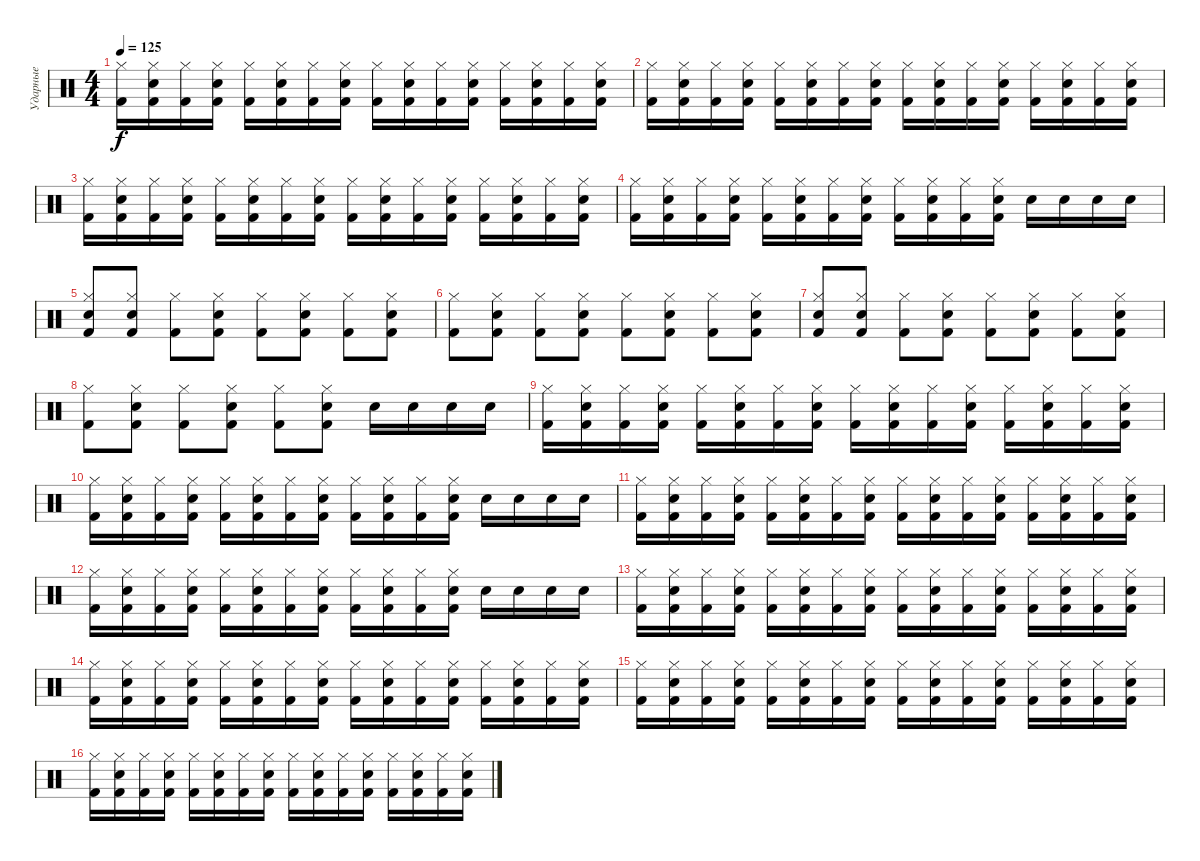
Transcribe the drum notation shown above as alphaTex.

\track ("Ударные" "Ударные") {instrument percussion}
\staff {score}
\articulation defaults
\ts (4 4)
\tempo 125
\clef neutral
\ks c
("Kick (hit) 2" "Hi-Hat (closed)").16{dy f} ("Kick (hit) 2" "Hi-Hat (closed)" "Electric Snare (hit)").16 ("Kick (hit) 2" "Hi-Hat (closed)").16 ("Kick (hit) 2" "Hi-Hat (closed)" "Electric Snare (hit)").16 ("Kick (hit) 2" "Hi-Hat (closed)").16 ("Kick (hit) 2" "Hi-Hat (closed)" "Electric Snare (hit)").16 ("Kick (hit) 2" "Hi-Hat (closed)").16 ("Kick (hit) 2" "Hi-Hat (closed)" "Electric Snare (hit)").16 ("Kick (hit) 2" "Hi-Hat (closed)").16 ("Kick (hit) 2" "Hi-Hat (closed)" "Electric Snare (hit)").16 ("Kick (hit) 2" "Hi-Hat (closed)").16 ("Kick (hit) 2" "Hi-Hat (closed)" "Electric Snare (hit)").16 ("Kick (hit) 2" "Hi-Hat (closed)").16 ("Kick (hit) 2" "Hi-Hat (closed)" "Electric Snare (hit)").16 ("Kick (hit) 2" "Hi-Hat (closed)").16 ("Kick (hit) 2" "Hi-Hat (closed)" "Electric Snare (hit)").16 |
("Kick (hit) 2" "Hi-Hat (closed)").16 ("Kick (hit) 2" "Hi-Hat (closed)" "Electric Snare (hit)").16 ("Kick (hit) 2" "Hi-Hat (closed)").16 ("Kick (hit) 2" "Hi-Hat (closed)" "Electric Snare (hit)").16 ("Kick (hit) 2" "Hi-Hat (closed)").16 ("Kick (hit) 2" "Hi-Hat (closed)" "Electric Snare (hit)").16 ("Kick (hit) 2" "Hi-Hat (closed)").16 ("Kick (hit) 2" "Hi-Hat (closed)" "Electric Snare (hit)").16 ("Kick (hit) 2" "Hi-Hat (closed)").16 ("Kick (hit) 2" "Hi-Hat (closed)" "Electric Snare (hit)").16 ("Kick (hit) 2" "Hi-Hat (closed)").16 ("Kick (hit) 2" "Hi-Hat (closed)" "Electric Snare (hit)").16 ("Kick (hit) 2" "Hi-Hat (closed)").16 ("Kick (hit) 2" "Hi-Hat (closed)" "Electric Snare (hit)").16 ("Kick (hit) 2" "Hi-Hat (closed)").16 ("Kick (hit) 2" "Hi-Hat (closed)" "Electric Snare (hit)").16 |
("Kick (hit) 2" "Hi-Hat (closed)").16 ("Kick (hit) 2" "Hi-Hat (closed)" "Electric Snare (hit)").16 ("Kick (hit) 2" "Hi-Hat (closed)").16 ("Kick (hit) 2" "Hi-Hat (closed)" "Electric Snare (hit)").16 ("Kick (hit) 2" "Hi-Hat (closed)").16 ("Kick (hit) 2" "Hi-Hat (closed)" "Electric Snare (hit)").16 ("Kick (hit) 2" "Hi-Hat (closed)").16 ("Kick (hit) 2" "Hi-Hat (closed)" "Electric Snare (hit)").16 ("Kick (hit) 2" "Hi-Hat (closed)").16 ("Kick (hit) 2" "Hi-Hat (closed)" "Electric Snare (hit)").16 ("Kick (hit) 2" "Hi-Hat (closed)").16 ("Kick (hit) 2" "Hi-Hat (closed)" "Electric Snare (hit)").16 ("Kick (hit) 2" "Hi-Hat (closed)").16 ("Kick (hit) 2" "Hi-Hat (closed)" "Electric Snare (hit)").16 ("Kick (hit) 2" "Hi-Hat (closed)").16 ("Kick (hit) 2" "Hi-Hat (closed)" "Electric Snare (hit)").16 |
("Kick (hit) 2" "Hi-Hat (closed)").16 ("Kick (hit) 2" "Hi-Hat (closed)" "Electric Snare (hit)").16 ("Kick (hit) 2" "Hi-Hat (closed)").16 ("Kick (hit) 2" "Hi-Hat (closed)" "Electric Snare (hit)").16 ("Kick (hit) 2" "Hi-Hat (closed)").16 ("Kick (hit) 2" "Hi-Hat (closed)" "Electric Snare (hit)").16 ("Kick (hit) 2" "Hi-Hat (closed)").16 ("Kick (hit) 2" "Hi-Hat (closed)" "Electric Snare (hit)").16 ("Kick (hit) 2" "Hi-Hat (closed)").16 ("Kick (hit) 2" "Hi-Hat (closed)" "Electric Snare (hit)").16 ("Kick (hit) 2" "Hi-Hat (closed)").16 ("Kick (hit) 2" "Hi-Hat (closed)" "Electric Snare (hit)").16 "Electric Snare (hit)".16 "Electric Snare (hit)".16 "Electric Snare (hit)".16 "Electric Snare (hit)".16 |
("Kick (hit) 2" "Hi-Hat (closed)" "Electric Snare (hit)").8 ("Kick (hit) 2" "Hi-Hat (closed)" "Electric Snare (hit)").8 ("Kick (hit) 2" "Hi-Hat (closed)").8 ("Kick (hit) 2" "Hi-Hat (closed)" "Electric Snare (hit)").8 ("Kick (hit) 2" "Hi-Hat (closed)").8 ("Kick (hit) 2" "Hi-Hat (closed)" "Electric Snare (hit)").8 ("Kick (hit) 2" "Hi-Hat (closed)").8 ("Kick (hit) 2" "Hi-Hat (closed)" "Electric Snare (hit)").8 |
("Kick (hit) 2" "Hi-Hat (closed)").8 ("Kick (hit) 2" "Hi-Hat (closed)" "Electric Snare (hit)").8 ("Kick (hit) 2" "Hi-Hat (closed)").8 ("Kick (hit) 2" "Hi-Hat (closed)" "Electric Snare (hit)").8 ("Kick (hit) 2" "Hi-Hat (closed)").8 ("Kick (hit) 2" "Hi-Hat (closed)" "Electric Snare (hit)").8 ("Kick (hit) 2" "Hi-Hat (closed)").8 ("Kick (hit) 2" "Hi-Hat (closed)" "Electric Snare (hit)").8 |
("Kick (hit) 2" "Hi-Hat (closed)" "Electric Snare (hit)").8 ("Kick (hit) 2" "Hi-Hat (closed)" "Electric Snare (hit)").8 ("Kick (hit) 2" "Hi-Hat (closed)").8 ("Kick (hit) 2" "Hi-Hat (closed)" "Electric Snare (hit)").8 ("Kick (hit) 2" "Hi-Hat (closed)").8 ("Kick (hit) 2" "Hi-Hat (closed)" "Electric Snare (hit)").8 ("Kick (hit) 2" "Hi-Hat (closed)").8 ("Kick (hit) 2" "Hi-Hat (closed)" "Electric Snare (hit)").8 |
("Kick (hit) 2" "Hi-Hat (closed)").8 ("Kick (hit) 2" "Hi-Hat (closed)" "Electric Snare (hit)").8 ("Kick (hit) 2" "Hi-Hat (closed)").8 ("Kick (hit) 2" "Hi-Hat (closed)" "Electric Snare (hit)").8 ("Kick (hit) 2" "Hi-Hat (closed)").8 ("Kick (hit) 2" "Hi-Hat (closed)" "Electric Snare (hit)").8 "Electric Snare (hit)".16 "Electric Snare (hit)".16 "Electric Snare (hit)".16 "Electric Snare (hit)".16 |
("Kick (hit) 2" "Hi-Hat (closed)").16 ("Kick (hit) 2" "Hi-Hat (closed)" "Electric Snare (hit)").16 ("Kick (hit) 2" "Hi-Hat (closed)").16 ("Kick (hit) 2" "Hi-Hat (closed)" "Electric Snare (hit)").16 ("Kick (hit) 2" "Hi-Hat (closed)").16 ("Kick (hit) 2" "Hi-Hat (closed)" "Electric Snare (hit)").16 ("Kick (hit) 2" "Hi-Hat (closed)").16 ("Kick (hit) 2" "Hi-Hat (closed)" "Electric Snare (hit)").16 ("Kick (hit) 2" "Hi-Hat (closed)").16 ("Kick (hit) 2" "Hi-Hat (closed)" "Electric Snare (hit)").16 ("Kick (hit) 2" "Hi-Hat (closed)").16 ("Kick (hit) 2" "Hi-Hat (closed)" "Electric Snare (hit)").16 ("Kick (hit) 2" "Hi-Hat (closed)").16 ("Kick (hit) 2" "Hi-Hat (closed)" "Electric Snare (hit)").16 ("Kick (hit) 2" "Hi-Hat (closed)").16 ("Kick (hit) 2" "Hi-Hat (closed)" "Electric Snare (hit)").16 |
("Kick (hit) 2" "Hi-Hat (closed)").16 ("Kick (hit) 2" "Hi-Hat (closed)" "Electric Snare (hit)").16 ("Kick (hit) 2" "Hi-Hat (closed)").16 ("Kick (hit) 2" "Hi-Hat (closed)" "Electric Snare (hit)").16 ("Kick (hit) 2" "Hi-Hat (closed)").16 ("Kick (hit) 2" "Hi-Hat (closed)" "Electric Snare (hit)").16 ("Kick (hit) 2" "Hi-Hat (closed)").16 ("Kick (hit) 2" "Hi-Hat (closed)" "Electric Snare (hit)").16 ("Kick (hit) 2" "Hi-Hat (closed)").16 ("Kick (hit) 2" "Hi-Hat (closed)" "Electric Snare (hit)").16 ("Kick (hit) 2" "Hi-Hat (closed)").16 ("Kick (hit) 2" "Hi-Hat (closed)" "Electric Snare (hit)").16 "Electric Snare (hit)".16 "Electric Snare (hit)".16 "Electric Snare (hit)".16 "Electric Snare (hit)".16 |
("Kick (hit) 2" "Hi-Hat (closed)").16 ("Kick (hit) 2" "Hi-Hat (closed)" "Electric Snare (hit)").16 ("Kick (hit) 2" "Hi-Hat (closed)").16 ("Kick (hit) 2" "Hi-Hat (closed)" "Electric Snare (hit)").16 ("Kick (hit) 2" "Hi-Hat (closed)").16 ("Kick (hit) 2" "Hi-Hat (closed)" "Electric Snare (hit)").16 ("Kick (hit) 2" "Hi-Hat (closed)").16 ("Kick (hit) 2" "Hi-Hat (closed)" "Electric Snare (hit)").16 ("Kick (hit) 2" "Hi-Hat (closed)").16 ("Kick (hit) 2" "Hi-Hat (closed)" "Electric Snare (hit)").16 ("Kick (hit) 2" "Hi-Hat (closed)").16 ("Kick (hit) 2" "Hi-Hat (closed)" "Electric Snare (hit)").16 ("Kick (hit) 2" "Hi-Hat (closed)").16 ("Kick (hit) 2" "Hi-Hat (closed)" "Electric Snare (hit)").16 ("Kick (hit) 2" "Hi-Hat (closed)").16 ("Kick (hit) 2" "Hi-Hat (closed)" "Electric Snare (hit)").16 |
("Kick (hit) 2" "Hi-Hat (closed)").16 ("Kick (hit) 2" "Hi-Hat (closed)" "Electric Snare (hit)").16 ("Kick (hit) 2" "Hi-Hat (closed)").16 ("Kick (hit) 2" "Hi-Hat (closed)" "Electric Snare (hit)").16 ("Kick (hit) 2" "Hi-Hat (closed)").16 ("Kick (hit) 2" "Hi-Hat (closed)" "Electric Snare (hit)").16 ("Kick (hit) 2" "Hi-Hat (closed)").16 ("Kick (hit) 2" "Hi-Hat (closed)" "Electric Snare (hit)").16 ("Kick (hit) 2" "Hi-Hat (closed)").16 ("Kick (hit) 2" "Hi-Hat (closed)" "Electric Snare (hit)").16 ("Kick (hit) 2" "Hi-Hat (closed)").16 ("Kick (hit) 2" "Hi-Hat (closed)" "Electric Snare (hit)").16 "Electric Snare (hit)".16 "Electric Snare (hit)".16 "Electric Snare (hit)".16 "Electric Snare (hit)".16 |
("Kick (hit) 2" "Hi-Hat (closed)").16 ("Kick (hit) 2" "Hi-Hat (closed)" "Electric Snare (hit)").16 ("Kick (hit) 2" "Hi-Hat (closed)").16 ("Kick (hit) 2" "Hi-Hat (closed)" "Electric Snare (hit)").16 ("Kick (hit) 2" "Hi-Hat (closed)").16 ("Kick (hit) 2" "Hi-Hat (closed)" "Electric Snare (hit)").16 ("Kick (hit) 2" "Hi-Hat (closed)").16 ("Kick (hit) 2" "Hi-Hat (closed)" "Electric Snare (hit)").16 ("Kick (hit) 2" "Hi-Hat (closed)").16 ("Kick (hit) 2" "Hi-Hat (closed)" "Electric Snare (hit)").16 ("Kick (hit) 2" "Hi-Hat (closed)").16 ("Kick (hit) 2" "Hi-Hat (closed)" "Electric Snare (hit)").16 ("Kick (hit) 2" "Hi-Hat (closed)").16 ("Kick (hit) 2" "Hi-Hat (closed)" "Electric Snare (hit)").16 ("Kick (hit) 2" "Hi-Hat (closed)").16 ("Kick (hit) 2" "Hi-Hat (closed)" "Electric Snare (hit)").16 |
("Kick (hit) 2" "Hi-Hat (closed)").16 ("Kick (hit) 2" "Hi-Hat (closed)" "Electric Snare (hit)").16 ("Kick (hit) 2" "Hi-Hat (closed)").16 ("Kick (hit) 2" "Hi-Hat (closed)" "Electric Snare (hit)").16 ("Kick (hit) 2" "Hi-Hat (closed)").16 ("Kick (hit) 2" "Hi-Hat (closed)" "Electric Snare (hit)").16 ("Kick (hit) 2" "Hi-Hat (closed)").16 ("Kick (hit) 2" "Hi-Hat (closed)" "Electric Snare (hit)").16 ("Kick (hit) 2" "Hi-Hat (closed)").16 ("Kick (hit) 2" "Hi-Hat (closed)" "Electric Snare (hit)").16 ("Kick (hit) 2" "Hi-Hat (closed)").16 ("Kick (hit) 2" "Hi-Hat (closed)" "Electric Snare (hit)").16 ("Kick (hit) 2" "Hi-Hat (closed)").16 ("Kick (hit) 2" "Hi-Hat (closed)" "Electric Snare (hit)").16 ("Kick (hit) 2" "Hi-Hat (closed)").16 ("Kick (hit) 2" "Hi-Hat (closed)" "Electric Snare (hit)").16 |
("Kick (hit) 2" "Hi-Hat (closed)").16 ("Kick (hit) 2" "Hi-Hat (closed)" "Electric Snare (hit)").16 ("Kick (hit) 2" "Hi-Hat (closed)").16 ("Kick (hit) 2" "Hi-Hat (closed)" "Electric Snare (hit)").16 ("Kick (hit) 2" "Hi-Hat (closed)").16 ("Kick (hit) 2" "Hi-Hat (closed)" "Electric Snare (hit)").16 ("Kick (hit) 2" "Hi-Hat (closed)").16 ("Kick (hit) 2" "Hi-Hat (closed)" "Electric Snare (hit)").16 ("Kick (hit) 2" "Hi-Hat (closed)").16 ("Kick (hit) 2" "Hi-Hat (closed)" "Electric Snare (hit)").16 ("Kick (hit) 2" "Hi-Hat (closed)").16 ("Kick (hit) 2" "Hi-Hat (closed)" "Electric Snare (hit)").16 ("Kick (hit) 2" "Hi-Hat (closed)").16 ("Kick (hit) 2" "Hi-Hat (closed)" "Electric Snare (hit)").16 ("Kick (hit) 2" "Hi-Hat (closed)").16 ("Kick (hit) 2" "Hi-Hat (closed)" "Electric Snare (hit)").16 |
("Kick (hit) 2" "Hi-Hat (closed)").16 ("Kick (hit) 2" "Hi-Hat (closed)" "Electric Snare (hit)").16 ("Kick (hit) 2" "Hi-Hat (closed)").16 ("Kick (hit) 2" "Hi-Hat (closed)" "Electric Snare (hit)").16 ("Kick (hit) 2" "Hi-Hat (closed)").16 ("Kick (hit) 2" "Hi-Hat (closed)" "Electric Snare (hit)").16 ("Kick (hit) 2" "Hi-Hat (closed)").16 ("Kick (hit) 2" "Hi-Hat (closed)" "Electric Snare (hit)").16 ("Kick (hit) 2" "Hi-Hat (closed)").16 ("Kick (hit) 2" "Hi-Hat (closed)" "Electric Snare (hit)").16 ("Kick (hit) 2" "Hi-Hat (closed)").16 ("Kick (hit) 2" "Hi-Hat (closed)" "Electric Snare (hit)").16 ("Kick (hit) 2" "Hi-Hat (closed)").16 ("Kick (hit) 2" "Hi-Hat (closed)" "Electric Snare (hit)").16 ("Kick (hit) 2" "Hi-Hat (closed)").16 ("Kick (hit) 2" "Hi-Hat (closed)" "Electric Snare (hit)").16
